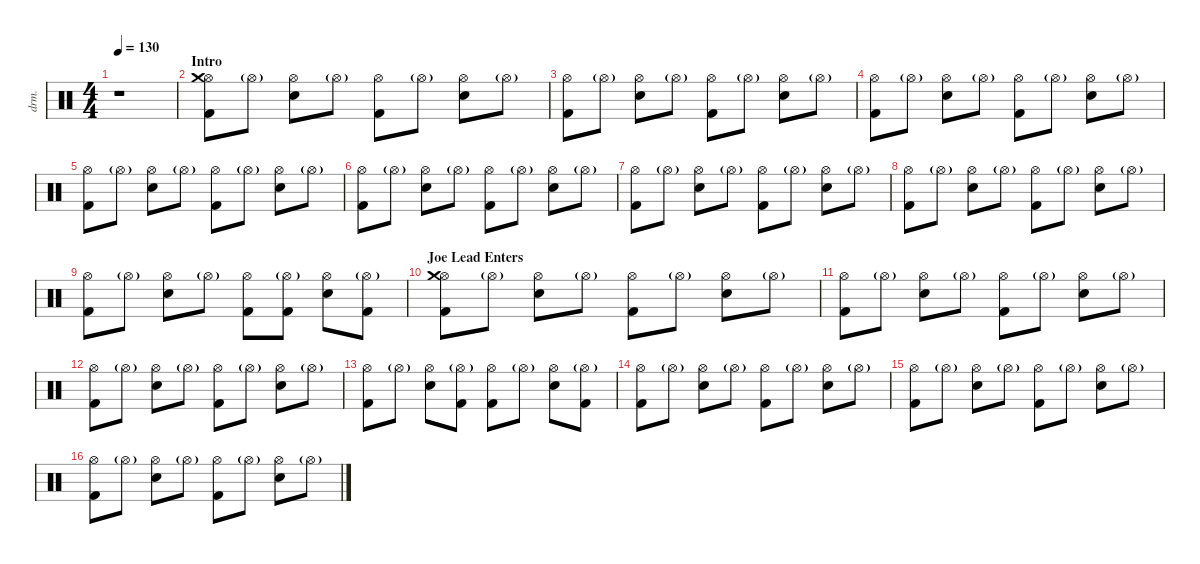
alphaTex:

\defaultSystemsLayout 4
\hideDynamics
\bracketExtendMode nobrackets
\otherSystemsTrackNameOrientation horizontal
\track ("Percussion" "drm.") {instrument percussion}
\staff {score}
\articulation defaults
\ts (4 4)
\tempo 130
\clef neutral
\ks c
r.1{dy f} |
\section ("" "Intro")
("Hi-Hat (open)" "Crash medium (hit)" "Kick (hit) 2").8 "Hi-Hat (open)"{g}.8 ("Hi-Hat (open)" "Snare (hit) 2").8 "Hi-Hat (open)"{g}.8 ("Hi-Hat (open)" "Kick (hit) 2").8 "Hi-Hat (open)"{g}.8 ("Hi-Hat (open)" "Snare (hit) 2").8 "Hi-Hat (open)"{g}.8 |
("Hi-Hat (open)" "Kick (hit) 2").8 "Hi-Hat (open)"{g}.8 ("Hi-Hat (open)" "Snare (hit) 2").8 "Hi-Hat (open)"{g}.8 ("Hi-Hat (open)" "Kick (hit) 2").8 "Hi-Hat (open)"{g}.8 ("Hi-Hat (open)" "Snare (hit) 2").8 "Hi-Hat (open)"{g}.8 |
("Hi-Hat (open)" "Kick (hit) 2").8 "Hi-Hat (open)"{g}.8 ("Hi-Hat (open)" "Snare (hit) 2").8 "Hi-Hat (open)"{g}.8 ("Hi-Hat (open)" "Kick (hit) 2").8 "Hi-Hat (open)"{g}.8 ("Hi-Hat (open)" "Snare (hit) 2").8 "Hi-Hat (open)"{g}.8 |
("Hi-Hat (open)" "Kick (hit) 2").8 "Hi-Hat (open)"{g}.8 ("Hi-Hat (open)" "Snare (hit) 2").8 "Hi-Hat (open)"{g}.8 ("Hi-Hat (open)" "Kick (hit) 2").8 "Hi-Hat (open)"{g}.8 ("Hi-Hat (open)" "Snare (hit) 2").8 "Hi-Hat (open)"{g}.8 |
("Hi-Hat (open)" "Kick (hit) 2").8 "Hi-Hat (open)"{g}.8 ("Hi-Hat (open)" "Snare (hit) 2").8 "Hi-Hat (open)"{g}.8 ("Hi-Hat (open)" "Kick (hit) 2").8 "Hi-Hat (open)"{g}.8 ("Hi-Hat (open)" "Snare (hit) 2").8 "Hi-Hat (open)"{g}.8 |
("Hi-Hat (open)" "Kick (hit) 2").8 "Hi-Hat (open)"{g}.8 ("Hi-Hat (open)" "Snare (hit) 2").8 "Hi-Hat (open)"{g}.8 ("Hi-Hat (open)" "Kick (hit) 2").8 "Hi-Hat (open)"{g}.8 ("Hi-Hat (open)" "Snare (hit) 2").8 "Hi-Hat (open)"{g}.8 |
("Hi-Hat (open)" "Kick (hit) 2").8 "Hi-Hat (open)"{g}.8 ("Hi-Hat (open)" "Snare (hit) 2").8 "Hi-Hat (open)"{g}.8 ("Hi-Hat (open)" "Kick (hit) 2").8 "Hi-Hat (open)"{g}.8 ("Hi-Hat (open)" "Snare (hit) 2").8 "Hi-Hat (open)"{g}.8 |
("Hi-Hat (open)" "Kick (hit) 2").8 "Hi-Hat (open)"{g}.8 ("Hi-Hat (open)" "Snare (hit) 2").8 "Hi-Hat (open)"{g}.8 ("Hi-Hat (open)" "Kick (hit) 2").8 ("Hi-Hat (open)"{g} "Kick (hit) 2").8 ("Hi-Hat (open)" "Snare (hit) 2").8 ("Hi-Hat (open)"{g} "Kick (hit) 2").8 |
\section ("" "Joe Lead Enters")
("Hi-Hat (open)" "Crash medium (hit)" "Kick (hit) 2").8 "Hi-Hat (open)"{g}.8 ("Hi-Hat (open)" "Snare (hit) 2").8 "Hi-Hat (open)"{g}.8 ("Hi-Hat (open)" "Kick (hit) 2").8 "Hi-Hat (open)"{g}.8 ("Hi-Hat (open)" "Snare (hit) 2").8 "Hi-Hat (open)"{g}.8 |
("Hi-Hat (open)" "Kick (hit) 2").8 "Hi-Hat (open)"{g}.8 ("Hi-Hat (open)" "Snare (hit) 2").8 "Hi-Hat (open)"{g}.8 ("Hi-Hat (open)" "Kick (hit) 2").8 "Hi-Hat (open)"{g}.8 ("Hi-Hat (open)" "Snare (hit) 2").8 "Hi-Hat (open)"{g}.8 |
("Hi-Hat (open)" "Kick (hit) 2").8 "Hi-Hat (open)"{g}.8 ("Hi-Hat (open)" "Snare (hit) 2").8 "Hi-Hat (open)"{g}.8 ("Hi-Hat (open)" "Kick (hit) 2").8 "Hi-Hat (open)"{g}.8 ("Hi-Hat (open)" "Snare (hit) 2").8 "Hi-Hat (open)"{g}.8 |
("Hi-Hat (open)" "Kick (hit) 2").8 "Hi-Hat (open)"{g}.8 ("Hi-Hat (open)" "Snare (hit) 2").8 ("Hi-Hat (open)"{g} "Kick (hit) 2").8 ("Hi-Hat (open)" "Kick (hit) 2").8 "Hi-Hat (open)"{g}.8 ("Hi-Hat (open)" "Snare (hit) 2").8 ("Hi-Hat (open)"{g} "Kick (hit) 2").8 |
("Hi-Hat (open)" "Kick (hit) 2").8 "Hi-Hat (open)"{g}.8 ("Hi-Hat (open)" "Snare (hit) 2").8 "Hi-Hat (open)"{g}.8 ("Hi-Hat (open)" "Kick (hit) 2").8 "Hi-Hat (open)"{g}.8 ("Hi-Hat (open)" "Snare (hit) 2").8 "Hi-Hat (open)"{g}.8 |
("Hi-Hat (open)" "Kick (hit) 2").8 "Hi-Hat (open)"{g}.8 ("Hi-Hat (open)" "Snare (hit) 2").8 "Hi-Hat (open)"{g}.8 ("Hi-Hat (open)" "Kick (hit) 2").8 "Hi-Hat (open)"{g}.8 ("Hi-Hat (open)" "Snare (hit) 2").8 "Hi-Hat (open)"{g}.8 |
("Hi-Hat (open)" "Kick (hit) 2").8 "Hi-Hat (open)"{g}.8 ("Hi-Hat (open)" "Snare (hit) 2").8 "Hi-Hat (open)"{g}.8 ("Hi-Hat (open)" "Kick (hit) 2").8 "Hi-Hat (open)"{g}.8 ("Hi-Hat (open)" "Snare (hit) 2").8 "Hi-Hat (open)"{g}.8
